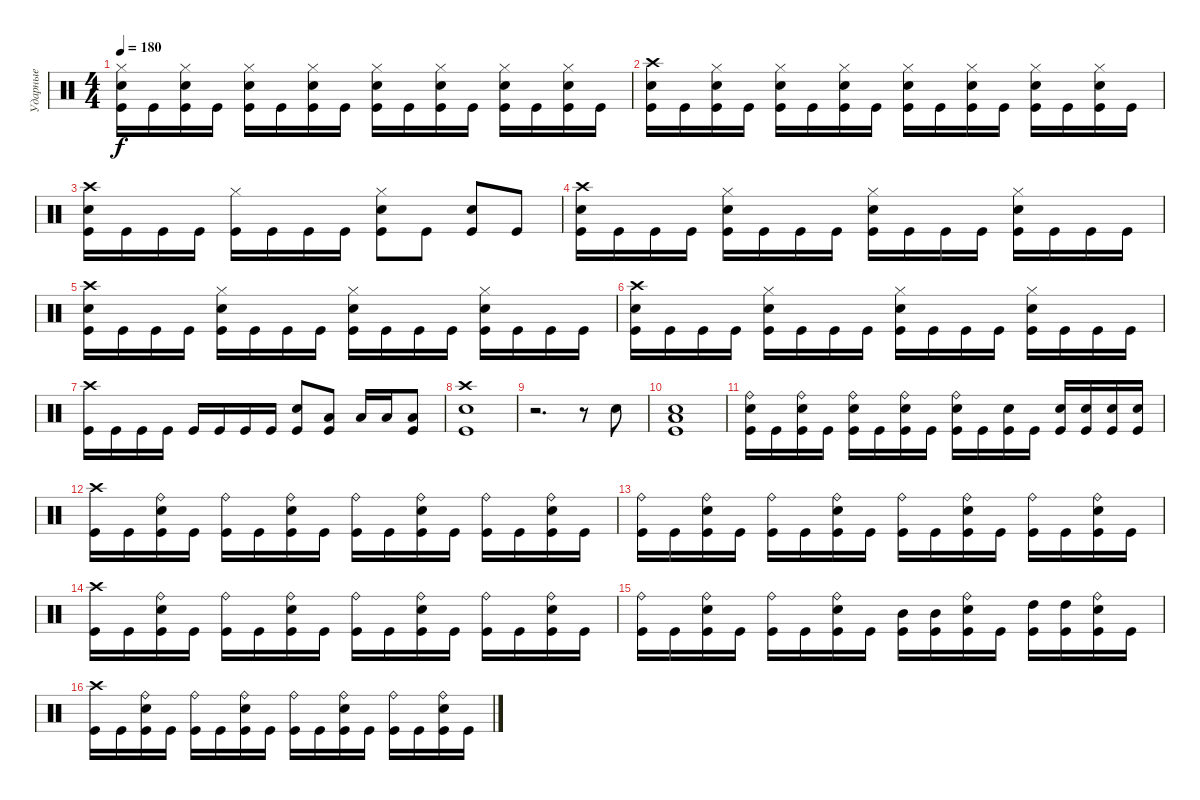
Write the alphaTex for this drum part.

\track ("Ударные" "Ударные") {instrument percussion}
\staff {score}
\articulation defaults
\ts (4 4)
\tempo 180
\clef neutral
\ks c
("Hi-Hat (closed)" "Electric Snare (hit)" "Kick (hit)").16{dy f} "Kick (hit)".16 ("Hi-Hat (closed)" "Electric Snare (hit)" "Kick (hit)").16 "Kick (hit)".16 ("Hi-Hat (closed)" "Electric Snare (hit)" "Kick (hit)").16 "Kick (hit)".16 ("Hi-Hat (closed)" "Electric Snare (hit)" "Kick (hit)").16 "Kick (hit)".16 ("Hi-Hat (closed)" "Electric Snare (hit)" "Kick (hit)").16 "Kick (hit)".16 ("Hi-Hat (closed)" "Electric Snare (hit)" "Kick (hit)").16 "Kick (hit)".16 ("Hi-Hat (closed)" "Electric Snare (hit)" "Kick (hit)").16 "Kick (hit)".16 ("Hi-Hat (closed)" "Electric Snare (hit)" "Kick (hit)").16 "Kick (hit)".16 |
("Crash high (hit)" "Electric Snare (hit)" "Kick (hit)").16 "Kick (hit)".16 ("Hi-Hat (closed)" "Electric Snare (hit)" "Kick (hit)").16 "Kick (hit)".16 ("Hi-Hat (closed)" "Electric Snare (hit)" "Kick (hit)").16 "Kick (hit)".16 ("Hi-Hat (closed)" "Electric Snare (hit)" "Kick (hit)").16 "Kick (hit)".16 ("Hi-Hat (closed)" "Electric Snare (hit)" "Kick (hit)").16 "Kick (hit)".16 ("Hi-Hat (closed)" "Electric Snare (hit)" "Kick (hit)").16 "Kick (hit)".16 ("Hi-Hat (closed)" "Electric Snare (hit)" "Kick (hit)").16 "Kick (hit)".16 ("Hi-Hat (closed)" "Electric Snare (hit)" "Kick (hit)").16 "Kick (hit)".16 |
("Crash high (hit)" "Electric Snare (hit)" "Kick (hit)").16 "Kick (hit)".16 "Kick (hit)".16 "Kick (hit)".16 ("Hi-Hat (closed)" "Kick (hit)").16 "Kick (hit)".16 "Kick (hit)".16 "Kick (hit)".16 ("Hi-Hat (closed)" "Electric Snare (hit)" "Kick (hit)").8 "Kick (hit)".8 ("Electric Snare (hit)" "Kick (hit)").8 "Kick (hit)".8 |
("Crash high (hit)" "Electric Snare (hit)" "Kick (hit)").16 "Kick (hit)".16 "Kick (hit)".16 "Kick (hit)".16 ("Hi-Hat (closed)" "Electric Snare (hit)" "Kick (hit)").16 "Kick (hit)".16 "Kick (hit)".16 "Kick (hit)".16 ("Hi-Hat (closed)" "Electric Snare (hit)" "Kick (hit)").16 "Kick (hit)".16 "Kick (hit)".16 "Kick (hit)".16 ("Hi-Hat (closed)" "Electric Snare (hit)" "Kick (hit)").16 "Kick (hit)".16 "Kick (hit)".16 "Kick (hit)".16 |
("Crash high (hit)" "Electric Snare (hit)" "Kick (hit)").16 "Kick (hit)".16 "Kick (hit)".16 "Kick (hit)".16 ("Hi-Hat (closed)" "Electric Snare (hit)" "Kick (hit)").16 "Kick (hit)".16 "Kick (hit)".16 "Kick (hit)".16 ("Hi-Hat (closed)" "Electric Snare (hit)" "Kick (hit)").16 "Kick (hit)".16 "Kick (hit)".16 "Kick (hit)".16 ("Hi-Hat (closed)" "Electric Snare (hit)" "Kick (hit)").16 "Kick (hit)".16 "Kick (hit)".16 "Kick (hit)".16 |
("Crash high (hit)" "Electric Snare (hit)" "Kick (hit)").16 "Kick (hit)".16 "Kick (hit)".16 "Kick (hit)".16 ("Hi-Hat (closed)" "Electric Snare (hit)" "Kick (hit)").16 "Kick (hit)".16 "Kick (hit)".16 "Kick (hit)".16 ("Hi-Hat (closed)" "Electric Snare (hit)" "Kick (hit)").16 "Kick (hit)".16 "Kick (hit)".16 "Kick (hit)".16 ("Hi-Hat (closed)" "Electric Snare (hit)" "Kick (hit)").16 "Kick (hit)".16 "Kick (hit)".16 "Kick (hit)".16 |
("Crash high (hit)" "Kick (hit)").16 "Kick (hit)".16 "Kick (hit)".16 "Kick (hit)".16 "Kick (hit)".16 "Kick (hit)".16 "Kick (hit)".16 "Kick (hit)".16 ("Electric Snare (hit)" "Kick (hit)").8 ("Low Tom (hit)" "Kick (hit)").8 "Low Tom (hit)".16 "Low Tom (hit)".16 ("Low Tom (hit)" "Kick (hit)").8 |
("Crash high (hit)" "Electric Snare (hit)" "Kick (hit)").1 |
r.2{d} r.8 "Electric Snare (hit)".8 |
("Low Tom (hit)" "Electric Snare (hit)" "Kick (hit)").1 |
("Ride (bell)" "Electric Snare (hit)" "Kick (hit)").16 "Kick (hit)".16 ("Ride (bell)" "Electric Snare (hit)" "Kick (hit)").16 "Kick (hit)".16 ("Ride (bell)" "Electric Snare (hit)" "Kick (hit)").16 "Kick (hit)".16 ("Ride (bell)" "Electric Snare (hit)" "Kick (hit)").16 "Kick (hit)".16 ("Ride (bell)" "Electric Snare (hit)" "Kick (hit)").16 "Kick (hit)".16 ("Electric Snare (hit)" "Kick (hit)").16 "Kick (hit)".16 ("Electric Snare (hit)" "Kick (hit)").16 ("Electric Snare (hit)" "Kick (hit)").16 ("Electric Snare (hit)" "Kick (hit)").16 ("Electric Snare (hit)" "Kick (hit)").16 |
("Crash high (hit)" "Kick (hit)").16 "Kick (hit)".16 ("Ride (bell)" "Electric Snare (hit)" "Kick (hit)").16 "Kick (hit)".16 ("Ride (bell)" "Kick (hit)").16 "Kick (hit)".16 ("Ride (bell)" "Electric Snare (hit)" "Kick (hit)").16 "Kick (hit)".16 ("Ride (bell)" "Kick (hit)").16 "Kick (hit)".16 ("Ride (bell)" "Electric Snare (hit)" "Kick (hit)").16 "Kick (hit)".16 ("Ride (bell)" "Kick (hit)").16 "Kick (hit)".16 ("Ride (bell)" "Electric Snare (hit)" "Kick (hit)").16 "Kick (hit)".16 |
("Ride (bell)" "Kick (hit)").16 "Kick (hit)".16 ("Ride (bell)" "Electric Snare (hit)" "Kick (hit)").16 "Kick (hit)".16 ("Ride (bell)" "Kick (hit)").16 "Kick (hit)".16 ("Ride (bell)" "Electric Snare (hit)" "Kick (hit)").16 "Kick (hit)".16 ("Ride (bell)" "Kick (hit)").16 "Kick (hit)".16 ("Ride (bell)" "Electric Snare (hit)" "Kick (hit)").16 "Kick (hit)".16 ("Ride (bell)" "Kick (hit)").16 "Kick (hit)".16 ("Ride (bell)" "Electric Snare (hit)" "Kick (hit)").16 "Kick (hit)".16 |
("Crash high (hit)" "Kick (hit)").16 "Kick (hit)".16 ("Ride (bell)" "Electric Snare (hit)" "Kick (hit)").16 "Kick (hit)".16 ("Ride (bell)" "Kick (hit)").16 "Kick (hit)".16 ("Ride (bell)" "Electric Snare (hit)" "Kick (hit)").16 "Kick (hit)".16 ("Ride (bell)" "Kick (hit)").16 "Kick (hit)".16 ("Ride (bell)" "Electric Snare (hit)" "Kick (hit)").16 "Kick (hit)".16 ("Ride (bell)" "Kick (hit)").16 "Kick (hit)".16 ("Ride (bell)" "Electric Snare (hit)" "Kick (hit)").16 "Kick (hit)".16 |
("Ride (bell)" "Kick (hit)").16 "Kick (hit)".16 ("Ride (bell)" "Electric Snare (hit)" "Kick (hit)").16 "Kick (hit)".16 ("Ride (bell)" "Kick (hit)").16 "Kick (hit)".16 ("Ride (bell)" "Electric Snare (hit)" "Kick (hit)").16 "Kick (hit)".16 ("Mid Tom (hit)" "Kick (hit)").16 ("Mid Tom (hit)" "Kick (hit)").16 ("Ride (bell)" "Electric Snare (hit)" "Kick (hit)").16 "Kick (hit)".16 ("High Tom (hit)" "Kick (hit)").16 ("High Tom (hit)" "Kick (hit)").16 ("Ride (bell)" "Electric Snare (hit)" "Kick (hit)").16 "Kick (hit)".16 |
("Crash high (hit)" "Kick (hit)").16 "Kick (hit)".16 ("Ride (bell)" "Electric Snare (hit)" "Kick (hit)").16 "Kick (hit)".16 ("Ride (bell)" "Kick (hit)").16 "Kick (hit)".16 ("Ride (bell)" "Electric Snare (hit)" "Kick (hit)").16 "Kick (hit)".16 ("Ride (bell)" "Kick (hit)").16 "Kick (hit)".16 ("Ride (bell)" "Electric Snare (hit)" "Kick (hit)").16 "Kick (hit)".16 ("Ride (bell)" "Kick (hit)").16 "Kick (hit)".16 ("Ride (bell)" "Electric Snare (hit)" "Kick (hit)").16 "Kick (hit)".16
